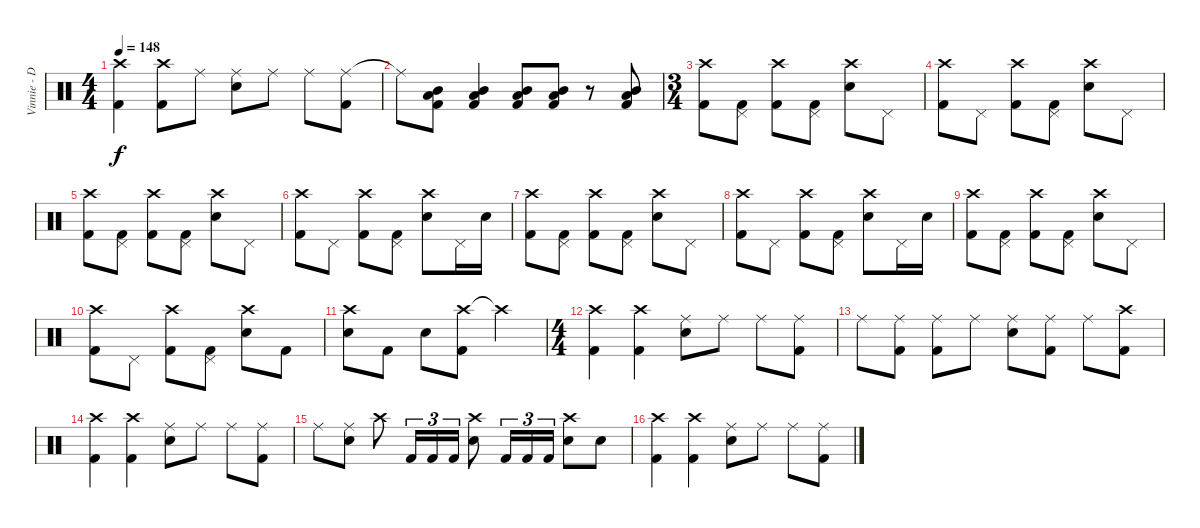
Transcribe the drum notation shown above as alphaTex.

\track ("Vinnie - Drums" "Vinnie - D") {instrument percussion}
\staff {score}
\articulation defaults
\ts (4 4)
\tempo 148
\clef neutral
\ks c
("Crash high (hit)" "Kick (hit) 2").4{dy f} ("Crash high (hit)" "Kick (hit) 2").8 "Ride (middle)".8 ("Ride (middle)" "Electric Snare (hit)").8 "Ride (middle)".8 "Ride (middle)".8 ("Ride (middle)" "Kick (hit) 2").8 |
"Ride (middle)"{t}.8 ("Mid Tom (hit)" "Low Tom (hit)" "Kick (hit) 2").8 ("Mid Tom (hit)" "Low Tom (hit)" "Kick (hit) 2").4 ("Mid Tom (hit)" "Low Tom (hit)" "Kick (hit) 2").8 ("Mid Tom (hit)" "Low Tom (hit)" "Kick (hit) 2").8 r.8 ("Mid Tom (hit)" "Low Tom (hit)" "Kick (hit) 2").8 |
\ts (3 4)
("Crash high (hit)" "Kick (hit) 2").8 ("Pedal Hi-Hat (hit)" "Kick (hit) 2").8 ("Crash high (hit)" "Kick (hit) 2").8 ("Pedal Hi-Hat (hit)" "Kick (hit) 2").8 ("Crash high (hit)" "Electric Snare (hit)").8 "Pedal Hi-Hat (hit)".8 |
("Crash high (hit)" "Kick (hit) 2").8 "Pedal Hi-Hat (hit)".8 ("Crash high (hit)" "Kick (hit) 2").8 ("Pedal Hi-Hat (hit)" "Kick (hit) 2").8 ("Crash high (hit)" "Electric Snare (hit)").8 "Pedal Hi-Hat (hit)".8 |
("Crash high (hit)" "Kick (hit) 2").8 ("Pedal Hi-Hat (hit)" "Kick (hit) 2").8 ("Crash high (hit)" "Kick (hit) 2").8 ("Pedal Hi-Hat (hit)" "Kick (hit) 2").8 ("Crash high (hit)" "Electric Snare (hit)").8 "Pedal Hi-Hat (hit)".8 |
("Crash high (hit)" "Kick (hit) 2").8 "Pedal Hi-Hat (hit)".8 ("Crash high (hit)" "Kick (hit) 2").8 ("Pedal Hi-Hat (hit)" "Kick (hit) 2").8 ("Crash high (hit)" "Electric Snare (hit)").8 "Pedal Hi-Hat (hit)".16 "Electric Snare (hit)".16 |
("Crash high (hit)" "Kick (hit) 2").8 ("Pedal Hi-Hat (hit)" "Kick (hit) 2").8 ("Crash high (hit)" "Kick (hit) 2").8 ("Pedal Hi-Hat (hit)" "Kick (hit) 2").8 ("Crash high (hit)" "Electric Snare (hit)").8 "Pedal Hi-Hat (hit)".8 |
("Crash high (hit)" "Kick (hit) 2").8 "Pedal Hi-Hat (hit)".8 ("Crash high (hit)" "Kick (hit) 2").8 ("Pedal Hi-Hat (hit)" "Kick (hit) 2").8 ("Crash high (hit)" "Electric Snare (hit)").8 "Pedal Hi-Hat (hit)".16 "Electric Snare (hit)".16 |
("Crash high (hit)" "Kick (hit) 2").8 ("Pedal Hi-Hat (hit)" "Kick (hit) 2").8 ("Crash high (hit)" "Kick (hit) 2").8 ("Pedal Hi-Hat (hit)" "Kick (hit) 2").8 ("Crash high (hit)" "Electric Snare (hit)").8 "Pedal Hi-Hat (hit)".8 |
("Crash high (hit)" "Kick (hit) 2").8 "Pedal Hi-Hat (hit)".8 ("Crash high (hit)" "Kick (hit) 2").8 ("Pedal Hi-Hat (hit)" "Kick (hit) 2").8 ("Crash high (hit)" "Electric Snare (hit)").8 "Kick (hit) 2".8 |
("Crash high (hit)" "Electric Snare (hit)").8 "Kick (hit) 2".8 "Electric Snare (hit)".8 ("Crash high (hit)" "Kick (hit) 2").8 "Crash high (hit)"{t}.4 |
\ts (4 4)
("Crash high (hit)" "Kick (hit) 2").4 ("Crash high (hit)" "Kick (hit) 2").4 ("Ride (middle)" "Electric Snare (hit)").8 "Ride (middle)".8 "Ride (middle)".8 ("Ride (middle)" "Kick (hit) 2").8 |
"Ride (middle)".8 ("Ride (middle)" "Kick (hit) 2").8 ("Ride (middle)" "Kick (hit) 2").8 "Ride (middle)".8 ("Ride (middle)" "Electric Snare (hit)").8 ("Ride (middle)" "Kick (hit) 2").8 "Ride (middle)".8 ("Crash high (hit)" "Kick (hit) 2").8 |
("Crash high (hit)" "Kick (hit) 2").4 ("Crash high (hit)" "Kick (hit) 2").4 ("Ride (middle)" "Electric Snare (hit)").8 "Ride (middle)".8 "Ride (middle)".8 ("Ride (middle)" "Kick (hit) 2").8 |
"Ride (middle)".8 ("Ride (middle)" "Electric Snare (hit)").8 "Crash high (hit)".8 "Kick (hit) 2".16{tu (3 2)} "Kick (hit) 2".16{tu (3 2)} "Kick (hit) 2".16{tu (3 2)} ("Crash high (hit)" "Electric Snare (hit)").8 "Kick (hit) 2".16{tu (3 2)} "Kick (hit) 2".16{tu (3 2)} "Kick (hit) 2".16{tu (3 2)} ("Crash high (hit)" "Electric Snare (hit)").8 "Electric Snare (hit)".8 |
("Crash high (hit)" "Kick (hit) 2").4 ("Crash high (hit)" "Kick (hit) 2").4 ("Ride (middle)" "Electric Snare (hit)").8 "Ride (middle)".8 "Ride (middle)".8 ("Ride (middle)" "Kick (hit) 2").8
